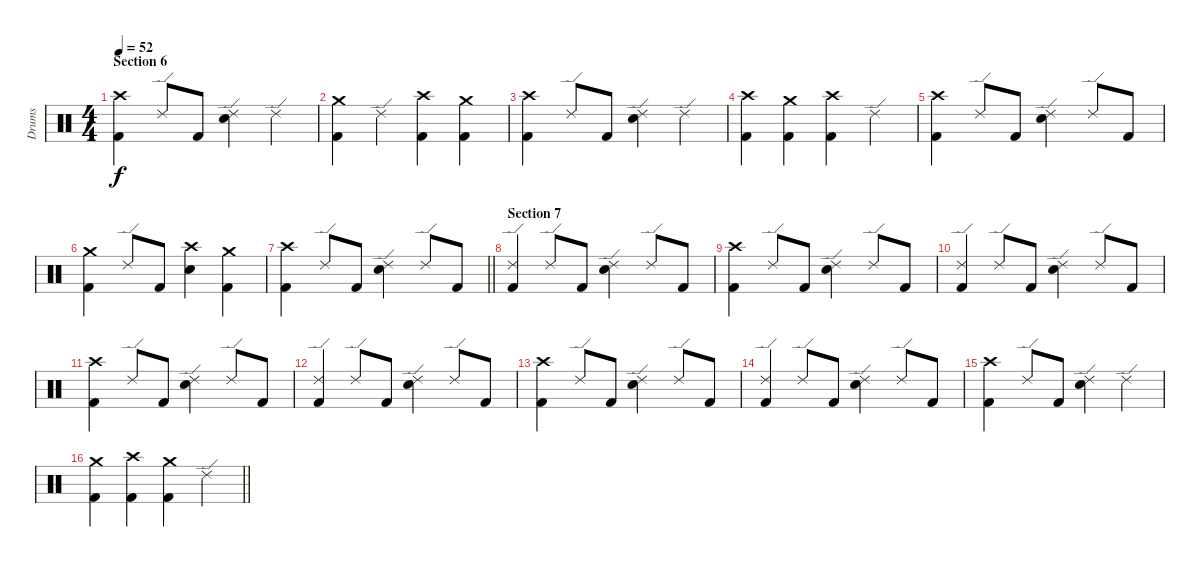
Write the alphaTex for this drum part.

\track ("Drums" "Drums") {instrument percussion}
\staff {score}
\articulation defaults
\ts (4 4)
\section ("" "Section 6")
\tempo 52
\clef neutral
\ks c
("Crash high (hit)" "Kick (hit) 2").4{dy f} "Ride (edge) 2".8 "Kick (hit) 2".8 ("Ride (edge) 2" "Electric Snare (hit)").4 "Ride (edge) 2".4 |
("Crash medium (hit)" "Kick (hit) 2").4 "Ride (edge) 2".4 ("Crash high (hit)" "Kick (hit) 2").4 ("Crash medium (hit)" "Kick (hit) 2").4 |
("Crash high (hit)" "Kick (hit) 2").4 "Ride (edge) 2".8 "Kick (hit) 2".8 ("Ride (edge) 2" "Electric Snare (hit)").4 "Ride (edge) 2".4 |
("Crash high (hit)" "Kick (hit) 2").4 ("Crash medium (hit)" "Kick (hit) 2").4 ("Crash high (hit)" "Kick (hit) 2").4 "Ride (edge) 2".4 |
("Crash high (hit)" "Kick (hit) 2").4 "Ride (edge) 2".8 "Kick (hit) 2".8 ("Ride (edge) 2" "Electric Snare (hit)").4 "Ride (edge) 2".8 "Kick (hit) 2".8 |
("Crash medium (hit)" "Kick (hit) 2").4 "Ride (edge) 2".8 "Kick (hit) 2".8 ("Crash high (hit)" "Electric Snare (hit)").4 ("Crash medium (hit)" "Kick (hit) 2").4 |
\barLineRight lightlight
("Crash high (hit)" "Kick (hit) 2").4 "Ride (edge) 2".8 "Kick (hit) 2".8 ("Ride (edge) 2" "Electric Snare (hit)").4 "Ride (edge) 2".8 "Kick (hit) 2".8 |
\section ("" "Section 7")
("Ride (edge) 2" "Kick (hit) 2").4 "Ride (edge) 2".8 "Kick (hit) 2".8 ("Ride (edge) 2" "Electric Snare (hit)").4 "Ride (edge) 2".8 "Kick (hit) 2".8 |
("Crash high (hit)" "Kick (hit) 2").4 "Ride (edge) 2".8 "Kick (hit) 2".8 ("Ride (edge) 2" "Electric Snare (hit)").4 "Ride (edge) 2".8 "Kick (hit) 2".8 |
("Ride (edge) 2" "Kick (hit) 2").4 "Ride (edge) 2".8 "Kick (hit) 2".8 ("Ride (edge) 2" "Electric Snare (hit)").4 "Ride (edge) 2".8 "Kick (hit) 2".8 |
("Crash high (hit)" "Kick (hit) 2").4 "Ride (edge) 2".8 "Kick (hit) 2".8 ("Ride (edge) 2" "Electric Snare (hit)").4 "Ride (edge) 2".8 "Kick (hit) 2".8 |
("Ride (edge) 2" "Kick (hit) 2").4 "Ride (edge) 2".8 "Kick (hit) 2".8 ("Ride (edge) 2" "Electric Snare (hit)").4 "Ride (edge) 2".8 "Kick (hit) 2".8 |
("Crash high (hit)" "Kick (hit) 2").4 "Ride (edge) 2".8 "Kick (hit) 2".8 ("Ride (edge) 2" "Electric Snare (hit)").4 "Ride (edge) 2".8 "Kick (hit) 2".8 |
("Ride (edge) 2" "Kick (hit) 2").4 "Ride (edge) 2".8 "Kick (hit) 2".8 ("Ride (edge) 2" "Electric Snare (hit)").4 "Ride (edge) 2".8 "Kick (hit) 2".8 |
("Crash high (hit)" "Kick (hit) 2").4 "Ride (edge) 2".8 "Kick (hit) 2".8 ("Ride (edge) 2" "Electric Snare (hit)").4 "Ride (edge) 2".4 |
\barLineRight lightlight
("Crash medium (hit)" "Kick (hit) 2").4 ("Crash high (hit)" "Kick (hit) 2").4 ("Crash medium (hit)" "Kick (hit) 2").4 "Ride (edge) 2".4
